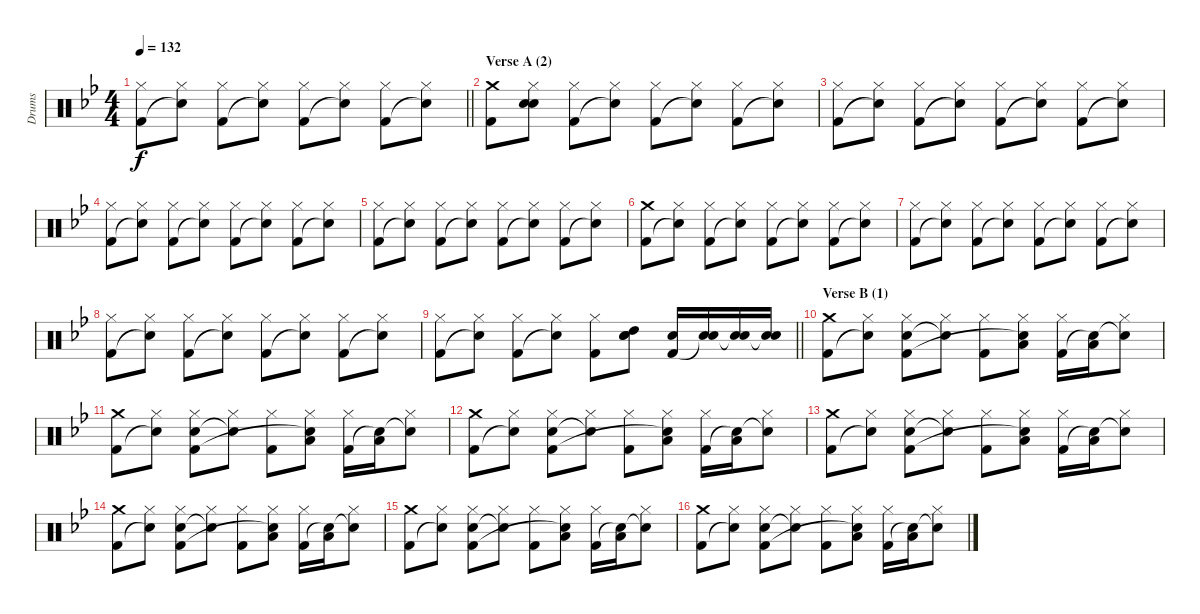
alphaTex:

\track ("Drums" "Drums") {instrument percussion}
\staff {score}
\articulation defaults
\ts (4 4)
\tempo 132
\clef neutral
\barLineRight lightlight
\ks bb
("Hi-Hat (closed)" "Kick (hit) 2").8{dy f} ("Hi-Hat (closed)" "Snare (hit)"{t}).8 ("Hi-Hat (closed)" "Kick (hit) 2").8 ("Hi-Hat (closed)" "Snare (hit)"{t}).8 ("Hi-Hat (closed)" "Kick (hit) 2").8 ("Hi-Hat (closed)" "Snare (hit)"{t}).8 ("Hi-Hat (closed)" "Kick (hit) 2").8 ("Hi-Hat (closed)" "Snare (hit)"{t}).8 |
\section ("" "Verse A (2)")
("Crash medium (hit)" "Kick (hit) 2").8 ("Hi-Hat (closed)" "Electric Snare (hit)" "Snare (hit)").8 ("Hi-Hat (closed)" "Kick (hit) 2").8 ("Hi-Hat (closed)" "Snare (hit)"{t}).8 ("Hi-Hat (closed)" "Kick (hit) 2").8 ("Hi-Hat (closed)" "Snare (hit)"{t}).8 ("Hi-Hat (closed)" "Kick (hit) 2").8 ("Hi-Hat (closed)" "Snare (hit)"{t}).8 |
("Hi-Hat (closed)" "Kick (hit) 2").8 ("Hi-Hat (closed)" "Snare (hit)"{t}).8 ("Hi-Hat (closed)" "Kick (hit) 2").8 ("Hi-Hat (closed)" "Snare (hit)"{t}).8 ("Hi-Hat (closed)" "Kick (hit) 2").8 ("Hi-Hat (closed)" "Snare (hit)"{t}).8 ("Hi-Hat (closed)" "Kick (hit) 2").8 ("Hi-Hat (closed)" "Snare (hit)"{t}).8 |
("Hi-Hat (closed)" "Kick (hit) 2").8 ("Hi-Hat (closed)" "Snare (hit)"{t}).8 ("Hi-Hat (closed)" "Kick (hit) 2").8 ("Hi-Hat (closed)" "Snare (hit)"{t}).8 ("Hi-Hat (closed)" "Kick (hit) 2").8 ("Hi-Hat (closed)" "Snare (hit)"{t}).8 ("Hi-Hat (closed)" "Kick (hit) 2").8 ("Hi-Hat (closed)" "Snare (hit)"{t}).8 |
("Hi-Hat (closed)" "Kick (hit) 2").8 ("Hi-Hat (closed)" "Snare (hit)"{t}).8 ("Hi-Hat (closed)" "Kick (hit) 2").8 ("Hi-Hat (closed)" "Snare (hit)"{t}).8 ("Hi-Hat (closed)" "Kick (hit) 2").8 ("Hi-Hat (closed)" "Snare (hit)"{t}).8 ("Hi-Hat (closed)" "Kick (hit) 2").8 ("Hi-Hat (closed)" "Snare (hit)"{t}).8 |
("Crash medium (hit)" "Kick (hit) 2").8 ("Hi-Hat (closed)" "Snare (hit)"{t}).8 ("Hi-Hat (closed)" "Kick (hit) 2").8 ("Hi-Hat (closed)" "Snare (hit)"{t}).8 ("Hi-Hat (closed)" "Kick (hit) 2").8 ("Hi-Hat (closed)" "Snare (hit)"{t}).8 ("Hi-Hat (closed)" "Kick (hit) 2").8 ("Hi-Hat (closed)" "Snare (hit)"{t}).8 |
("Hi-Hat (closed)" "Kick (hit) 2").8 ("Hi-Hat (closed)" "Snare (hit)"{t}).8 ("Hi-Hat (closed)" "Kick (hit) 2").8 ("Hi-Hat (closed)" "Snare (hit)"{t}).8 ("Hi-Hat (closed)" "Kick (hit) 2").8 ("Hi-Hat (closed)" "Snare (hit)"{t}).8 ("Hi-Hat (closed)" "Kick (hit) 2").8 ("Hi-Hat (closed)" "Snare (hit)"{t}).8 |
("Hi-Hat (closed)" "Kick (hit) 2").8 ("Hi-Hat (closed)" "Snare (hit)"{t}).8 ("Hi-Hat (closed)" "Kick (hit) 2").8 ("Hi-Hat (closed)" "Snare (hit)"{t}).8 ("Hi-Hat (closed)" "Kick (hit) 2").8 ("Hi-Hat (closed)" "Snare (hit)"{t}).8 ("Hi-Hat (closed)" "Kick (hit) 2").8 ("Hi-Hat (closed)" "Snare (hit)"{t}).8 |
\barLineRight lightlight
("Hi-Hat (closed)" "Kick (hit) 2").8 ("Hi-Hat (closed)" "Snare (hit)"{t}).8 ("Hi-Hat (closed)" "Kick (hit) 2").8 ("Hi-Hat (closed)" "Snare (hit)"{t}).8 ("Hi-Hat (closed)" "Kick (hit) 2").8 ("High Tom (hit)" "Electric Snare (hit)" "Snare (hit)").8 ("Electric Snare (hit)" "Kick (hit) 2").16 ("Electric Snare (hit)" "Snare (hit)"{t}).16 ("Electric Snare (hit)" "Snare (hit)"{t}).16 ("Electric Snare (hit)" "Snare (hit)"{t}).16 |
\section ("" "Verse B (1)")
("Crash medium (hit)" "Kick (hit) 2").8 ("Hi-Hat (closed)" "Snare (hit)"{t}).8 ("Hi-Hat (closed)" "Electric Snare (hit)" "Kick (hit) 2").8 ("Hi-Hat (closed)" "Snare (hit)"{t}).8 ("Hi-Hat (closed)" "Kick (hit) 2").8 ("Hi-Hat (closed)" "Low Floor Tom (hit)" "Snare (hit)"{t}).8 ("Hi-Hat (closed)" "Kick (hit) 2").16 ("Low Floor Tom (hit)" "Snare (hit)"{t}).16 ("Hi-Hat (closed)" "Snare (hit)"{t}).8 |
("Crash medium (hit)" "Kick (hit) 2").8 ("Hi-Hat (closed)" "Snare (hit)"{t}).8 ("Hi-Hat (closed)" "Electric Snare (hit)" "Kick (hit) 2").8 ("Hi-Hat (closed)" "Snare (hit)"{t}).8 ("Hi-Hat (closed)" "Kick (hit) 2").8 ("Hi-Hat (closed)" "Low Floor Tom (hit)" "Snare (hit)"{t}).8 ("Hi-Hat (closed)" "Kick (hit) 2").16 ("Low Floor Tom (hit)" "Snare (hit)"{t}).16 ("Hi-Hat (closed)" "Snare (hit)"{t}).8 |
("Crash medium (hit)" "Kick (hit) 2").8 ("Hi-Hat (closed)" "Snare (hit)"{t}).8 ("Hi-Hat (closed)" "Electric Snare (hit)" "Kick (hit) 2").8 ("Hi-Hat (closed)" "Snare (hit)"{t}).8 ("Hi-Hat (closed)" "Kick (hit) 2").8 ("Hi-Hat (closed)" "Low Floor Tom (hit)" "Snare (hit)"{t}).8 ("Hi-Hat (closed)" "Kick (hit) 2").16 ("Low Floor Tom (hit)" "Snare (hit)"{t}).16 ("Hi-Hat (closed)" "Snare (hit)"{t}).8 |
("Crash medium (hit)" "Kick (hit) 2").8 ("Hi-Hat (closed)" "Snare (hit)"{t}).8 ("Hi-Hat (closed)" "Electric Snare (hit)" "Kick (hit) 2").8 ("Hi-Hat (closed)" "Snare (hit)"{t}).8 ("Hi-Hat (closed)" "Kick (hit) 2").8 ("Hi-Hat (closed)" "Low Floor Tom (hit)" "Snare (hit)"{t}).8 ("Hi-Hat (closed)" "Kick (hit) 2").16 ("Low Floor Tom (hit)" "Snare (hit)"{t}).16 ("Hi-Hat (closed)" "Snare (hit)"{t}).8 |
("Crash medium (hit)" "Kick (hit) 2").8 ("Hi-Hat (closed)" "Snare (hit)"{t}).8 ("Hi-Hat (closed)" "Electric Snare (hit)" "Kick (hit) 2").8 ("Hi-Hat (closed)" "Snare (hit)"{t}).8 ("Hi-Hat (closed)" "Kick (hit) 2").8 ("Hi-Hat (closed)" "Low Floor Tom (hit)" "Snare (hit)"{t}).8 ("Hi-Hat (closed)" "Kick (hit) 2").16 ("Low Floor Tom (hit)" "Snare (hit)"{t}).16 ("Hi-Hat (closed)" "Snare (hit)"{t}).8 |
("Crash medium (hit)" "Kick (hit) 2").8 ("Hi-Hat (closed)" "Snare (hit)"{t}).8 ("Hi-Hat (closed)" "Electric Snare (hit)" "Kick (hit) 2").8 ("Hi-Hat (closed)" "Snare (hit)"{t}).8 ("Hi-Hat (closed)" "Kick (hit) 2").8 ("Hi-Hat (closed)" "Low Floor Tom (hit)" "Snare (hit)"{t}).8 ("Hi-Hat (closed)" "Kick (hit) 2").16 ("Low Floor Tom (hit)" "Snare (hit)"{t}).16 ("Hi-Hat (closed)" "Snare (hit)"{t}).8 |
("Crash medium (hit)" "Kick (hit) 2").8 ("Hi-Hat (closed)" "Snare (hit)"{t}).8 ("Hi-Hat (closed)" "Electric Snare (hit)" "Kick (hit) 2").8 ("Hi-Hat (closed)" "Snare (hit)"{t}).8 ("Hi-Hat (closed)" "Kick (hit) 2").8 ("Hi-Hat (closed)" "Low Floor Tom (hit)" "Snare (hit)"{t}).8 ("Hi-Hat (closed)" "Kick (hit) 2").16 ("Low Floor Tom (hit)" "Snare (hit)"{t}).16 ("Hi-Hat (closed)" "Snare (hit)"{t}).8
